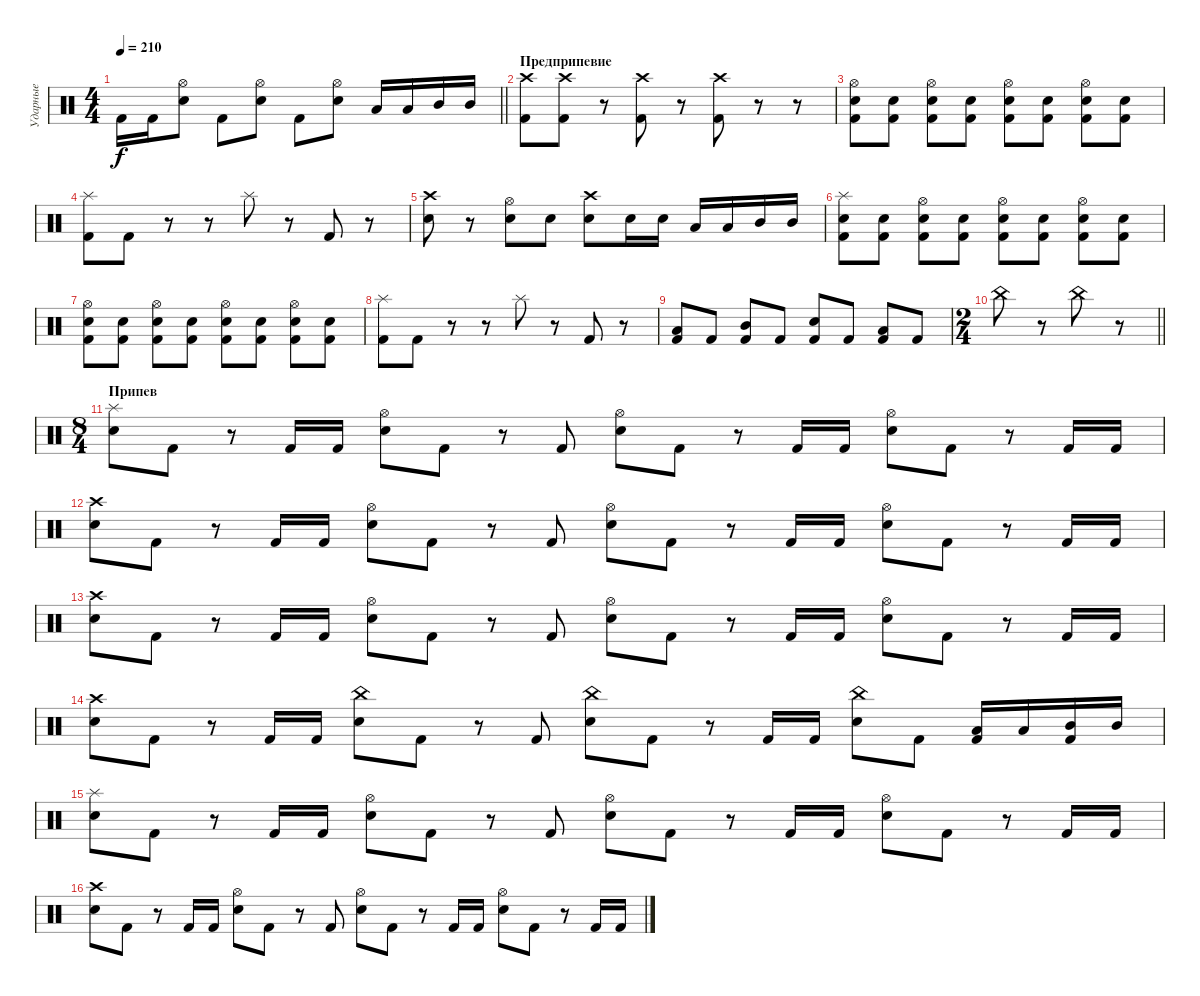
\track ("Ударные" "Ударные") {instrument percussion}
\staff {score}
\articulation defaults
\ts (4 4)
\tempo 210
\clef neutral
\barLineRight lightlight
\ks c "Kick (hit) 2".16{dy f} "Kick (hit) 2".16
("Electric Snare (hit)" "Hi-Hat (open)").8 "Kick (hit) 2".8 ("Electric Snare (hit)" "Hi-Hat (open)").8 "Kick (hit) 2".8 ("Electric Snare (hit)" "Hi-Hat (open)").8 "Low Tom (hit)".16 "Low Tom (hit)".16 "Mid Tom (hit)".16 "Mid Tom (hit)".16 |
\section ("" "Предприпевие")
("Kick (hit) 2" "Crash high (hit)").8 ("Kick (hit) 2" "Crash high (hit)").8 r.8 ("Kick (hit) 2" "Crash high (hit)").8 r.8 ("Kick (hit) 2" "Crash high (hit)").8 r.8 r.8 |
("Kick (hit) 2" "Electric Snare (hit)" "Hi-Hat (open)").8 ("Kick (hit) 2" "Electric Snare (hit)").8 ("Kick (hit) 2" "Electric Snare (hit)" "Hi-Hat (open)").8 ("Kick (hit) 2" "Electric Snare (hit)").8 ("Kick (hit) 2" "Electric Snare (hit)" "Hi-Hat (open)").8 ("Kick (hit) 2" "Electric Snare (hit)").8 ("Kick (hit) 2" "Electric Snare (hit)" "Hi-Hat (open)").8 ("Kick (hit) 2" "Electric Snare (hit)").8 |
("Kick (hit) 2" "Splash (hit)").8 "Kick (hit) 2".8 r.8 r.8 "Splash (hit)".8 r.8 "Kick (hit) 2".8 r.8 |
("Electric Snare (hit)" "Crash high (hit)").8 r.8 ("Electric Snare (hit)" "Hi-Hat (open)").8 "Electric Snare (hit)".8 ("Electric Snare (hit)" "Crash high (hit)").8 "Electric Snare (hit)".16 "Electric Snare (hit)".16 "Low Tom (hit)".16 "Low Tom (hit)".16 "Mid Tom (hit)".16 "Mid Tom (hit)".16 |
("Kick (hit) 2" "Electric Snare (hit)" "Splash (hit)").8 ("Kick (hit) 2" "Electric Snare (hit)").8 ("Kick (hit) 2" "Electric Snare (hit)" "Hi-Hat (open)").8 ("Kick (hit) 2" "Electric Snare (hit)").8 ("Kick (hit) 2" "Electric Snare (hit)" "Hi-Hat (open)").8 ("Kick (hit) 2" "Electric Snare (hit)").8 ("Kick (hit) 2" "Electric Snare (hit)" "Hi-Hat (open)").8 ("Kick (hit) 2" "Electric Snare (hit)").8 |
("Kick (hit) 2" "Electric Snare (hit)" "Hi-Hat (open)").8 ("Kick (hit) 2" "Electric Snare (hit)").8 ("Kick (hit) 2" "Electric Snare (hit)" "Hi-Hat (open)").8 ("Kick (hit) 2" "Electric Snare (hit)").8 ("Kick (hit) 2" "Electric Snare (hit)" "Hi-Hat (open)").8 ("Kick (hit) 2" "Electric Snare (hit)").8 ("Kick (hit) 2" "Electric Snare (hit)" "Hi-Hat (open)").8 ("Kick (hit) 2" "Electric Snare (hit)").8 |
("Kick (hit) 2" "Splash (hit)").8 "Kick (hit) 2".8 r.8 r.8 "Splash (hit)".8 r.8 "Kick (hit) 2".8 r.8 |
("Kick (hit) 2" "Low Tom (hit)").8 "Kick (hit) 2".8 ("Kick (hit) 2" "Mid Tom (hit)").8 "Kick (hit) 2".8 ("Kick (hit) 2" "Electric Snare (hit)").8 "Kick (hit) 2".8 ("Kick (hit) 2" "Low Tom (hit)").8 "Kick (hit) 2".8 |
\ts (2 4)
\barLineRight lightlight "China (hit)".8
r.8 "China (hit)".8 r.8 |
\ts (8 4)
\section ("" "Припев")
("Electric Snare (hit)" "Splash (hit)").8 "Kick (hit) 2".8 r.8 "Kick (hit) 2".16 "Kick (hit) 2".16 ("Electric Snare (hit)" "Hi-Hat (open)").8 "Kick (hit) 2".8 r.8 "Kick (hit) 2".8 ("Electric Snare (hit)" "Hi-Hat (open)").8 "Kick (hit) 2".8 r.8 "Kick (hit) 2".16 "Kick (hit) 2".16 ("Electric Snare (hit)" "Hi-Hat (open)").8 "Kick (hit) 2".8 r.8 "Kick (hit) 2".16 "Kick (hit) 2".16 |
("Electric Snare (hit)" "Crash high (hit)").8 "Kick (hit) 2".8 r.8 "Kick (hit) 2".16 "Kick (hit) 2".16 ("Electric Snare (hit)" "Hi-Hat (open)").8 "Kick (hit) 2".8 r.8 "Kick (hit) 2".8 ("Electric Snare (hit)" "Hi-Hat (open)").8 "Kick (hit) 2".8 r.8 "Kick (hit) 2".16 "Kick (hit) 2".16 ("Electric Snare (hit)" "Hi-Hat (open)").8 "Kick (hit) 2".8 r.8 "Kick (hit) 2".16 "Kick (hit) 2".16 |
("Electric Snare (hit)" "Crash high (hit)").8 "Kick (hit) 2".8 r.8 "Kick (hit) 2".16 "Kick (hit) 2".16 ("Electric Snare (hit)" "Hi-Hat (open)").8 "Kick (hit) 2".8 r.8 "Kick (hit) 2".8 ("Electric Snare (hit)" "Hi-Hat (open)").8 "Kick (hit) 2".8 r.8 "Kick (hit) 2".16 "Kick (hit) 2".16 ("Electric Snare (hit)" "Hi-Hat (open)").8 "Kick (hit) 2".8 r.8 "Kick (hit) 2".16 "Kick (hit) 2".16 |
("Electric Snare (hit)" "Crash high (hit)").8 "Kick (hit) 2".8 r.8 "Kick (hit) 2".16 "Kick (hit) 2".16 ("Electric Snare (hit)" "China (hit)").8 "Kick (hit) 2".8 r.8 "Kick (hit) 2".8 ("Electric Snare (hit)" "China (hit)").8 "Kick (hit) 2".8 r.8 "Kick (hit) 2".16 "Kick (hit) 2".16 ("Electric Snare (hit)" "China (hit)").8 "Kick (hit) 2".8 ("Kick (hit) 2" "Low Tom (hit)").16 "Low Tom (hit)".16 ("Kick (hit) 2" "Mid Tom (hit)").16 "Mid Tom (hit)".16 |
("Electric Snare (hit)" "Splash (hit)").8 "Kick (hit) 2".8 r.8 "Kick (hit) 2".16 "Kick (hit) 2".16 ("Electric Snare (hit)" "Hi-Hat (open)").8 "Kick (hit) 2".8 r.8 "Kick (hit) 2".8 ("Electric Snare (hit)" "Hi-Hat (open)").8 "Kick (hit) 2".8 r.8 "Kick (hit) 2".16 "Kick (hit) 2".16 ("Electric Snare (hit)" "Hi-Hat (open)").8 "Kick (hit) 2".8 r.8 "Kick (hit) 2".16 "Kick (hit) 2".16 |
("Electric Snare (hit)" "Crash high (hit)").8 "Kick (hit) 2".8 r.8 "Kick (hit) 2".16 "Kick (hit) 2".16 ("Electric Snare (hit)" "Hi-Hat (open)").8 "Kick (hit) 2".8 r.8 "Kick (hit) 2".8 ("Electric Snare (hit)" "Hi-Hat (open)").8 "Kick (hit) 2".8 r.8 "Kick (hit) 2".16 "Kick (hit) 2".16 ("Electric Snare (hit)" "Hi-Hat (open)").8 "Kick (hit) 2".8 r.8 "Kick (hit) 2".16 "Kick (hit) 2".16
